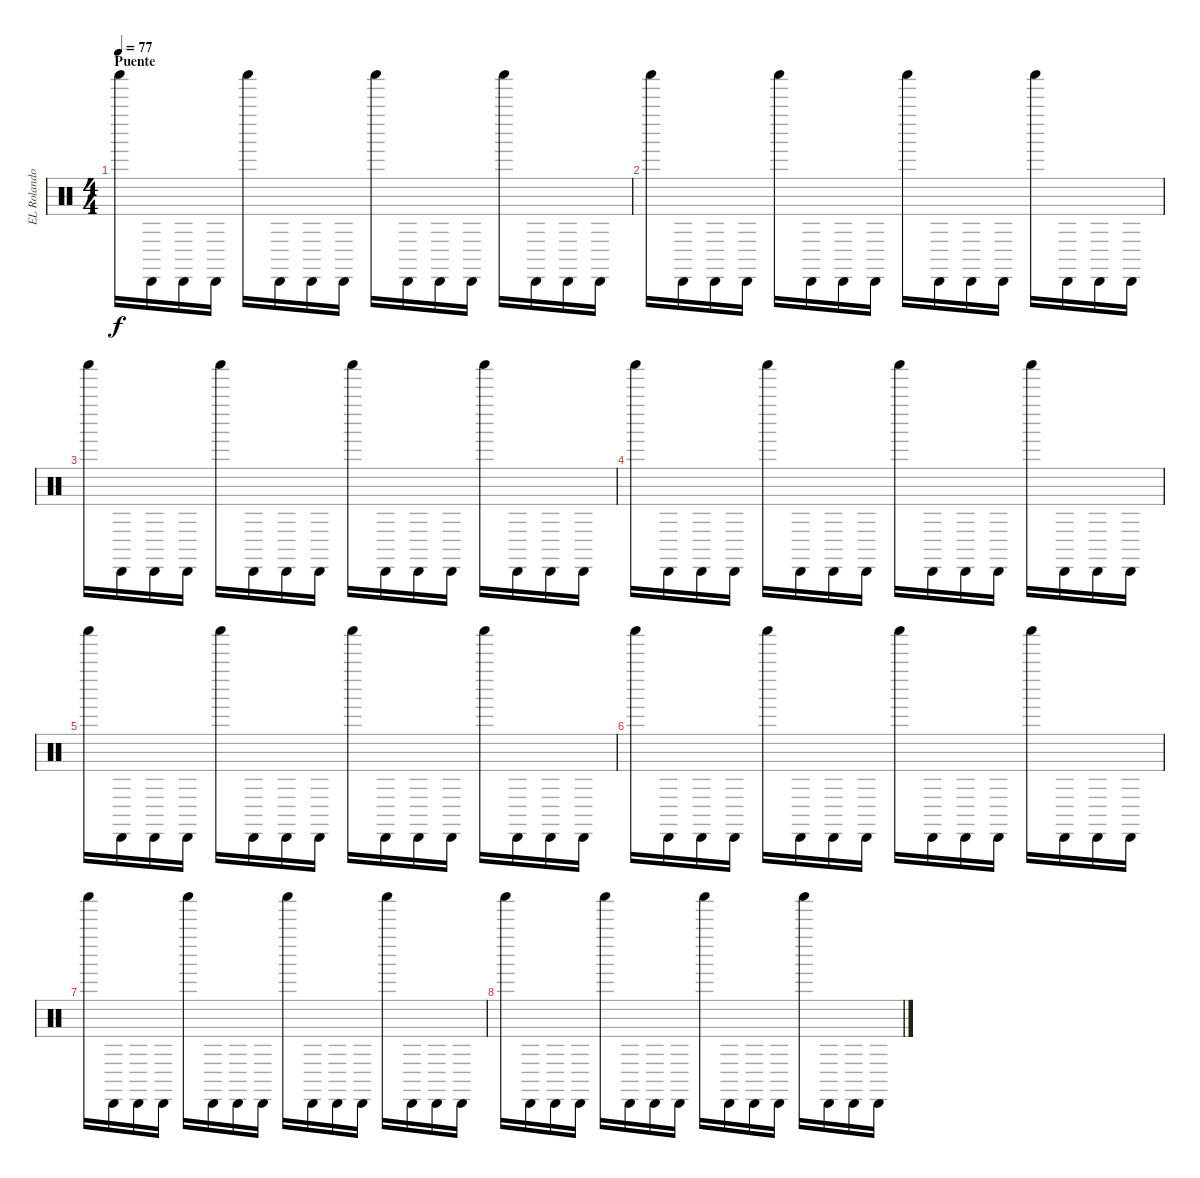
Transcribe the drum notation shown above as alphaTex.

\track ("EL Rolando" "EL Rolando") {instrument percussion}
\staff {score}
\articulation defaults
\ts (4 4)
\section ("" "Puente")
\tempo 77
\clef neutral
\ks c "Shaker (hit)".16{dy f volume 10} "Cabasa (hit)".16 "Cabasa (hit)".16 "Cabasa (hit)".16 "Shaker (hit)".16 "Cabasa (hit)".16 "Cabasa (hit)".16 "Cabasa (hit)".16 "Shaker (hit)".16 "Cabasa (hit)".16 "Cabasa (hit)".16 "Cabasa (hit)".16 "Shaker (hit)".16 "Cabasa (hit)".16 "Cabasa (hit)".16 "Cabasa (hit)".16
|
"Shaker (hit)".16 "Cabasa (hit)".16 "Cabasa (hit)".16 "Cabasa (hit)".16 "Shaker (hit)".16 "Cabasa (hit)".16 "Cabasa (hit)".16 "Cabasa (hit)".16 "Shaker (hit)".16 "Cabasa (hit)".16 "Cabasa (hit)".16 "Cabasa (hit)".16 "Shaker (hit)".16 "Cabasa (hit)".16 "Cabasa (hit)".16 "Cabasa (hit)".16 |
"Shaker (hit)".16 "Cabasa (hit)".16 "Cabasa (hit)".16 "Cabasa (hit)".16 "Shaker (hit)".16 "Cabasa (hit)".16 "Cabasa (hit)".16 "Cabasa (hit)".16 "Shaker (hit)".16 "Cabasa (hit)".16 "Cabasa (hit)".16 "Cabasa (hit)".16 "Shaker (hit)".16 "Cabasa (hit)".16 "Cabasa (hit)".16 "Cabasa (hit)".16 |
"Shaker (hit)".16 "Cabasa (hit)".16 "Cabasa (hit)".16 "Cabasa (hit)".16 "Shaker (hit)".16 "Cabasa (hit)".16 "Cabasa (hit)".16 "Cabasa (hit)".16 "Shaker (hit)".16 "Cabasa (hit)".16 "Cabasa (hit)".16 "Cabasa (hit)".16 "Shaker (hit)".16 "Cabasa (hit)".16 "Cabasa (hit)".16 "Cabasa (hit)".16 |
"Shaker (hit)".16 "Cabasa (hit)".16 "Cabasa (hit)".16 "Cabasa (hit)".16 "Shaker (hit)".16 "Cabasa (hit)".16 "Cabasa (hit)".16 "Cabasa (hit)".16 "Shaker (hit)".16 "Cabasa (hit)".16 "Cabasa (hit)".16 "Cabasa (hit)".16 "Shaker (hit)".16 "Cabasa (hit)".16 "Cabasa (hit)".16 "Cabasa (hit)".16 |
"Shaker (hit)".16 "Cabasa (hit)".16 "Cabasa (hit)".16 "Cabasa (hit)".16 "Shaker (hit)".16 "Cabasa (hit)".16 "Cabasa (hit)".16 "Cabasa (hit)".16 "Shaker (hit)".16 "Cabasa (hit)".16 "Cabasa (hit)".16 "Cabasa (hit)".16 "Shaker (hit)".16 "Cabasa (hit)".16 "Cabasa (hit)".16 "Cabasa (hit)".16 |
"Shaker (hit)".16 "Cabasa (hit)".16 "Cabasa (hit)".16 "Cabasa (hit)".16 "Shaker (hit)".16 "Cabasa (hit)".16 "Cabasa (hit)".16 "Cabasa (hit)".16 "Shaker (hit)".16 "Cabasa (hit)".16 "Cabasa (hit)".16 "Cabasa (hit)".16 "Shaker (hit)".16 "Cabasa (hit)".16 "Cabasa (hit)".16 "Cabasa (hit)".16 |
"Shaker (hit)".16 "Cabasa (hit)".16 "Cabasa (hit)".16 "Cabasa (hit)".16 "Shaker (hit)".16 "Cabasa (hit)".16 "Cabasa (hit)".16 "Cabasa (hit)".16 "Shaker (hit)".16 "Cabasa (hit)".16 "Cabasa (hit)".16 "Cabasa (hit)".16 "Shaker (hit)".16 "Cabasa (hit)".16 "Cabasa (hit)".16 "Cabasa (hit)".16
